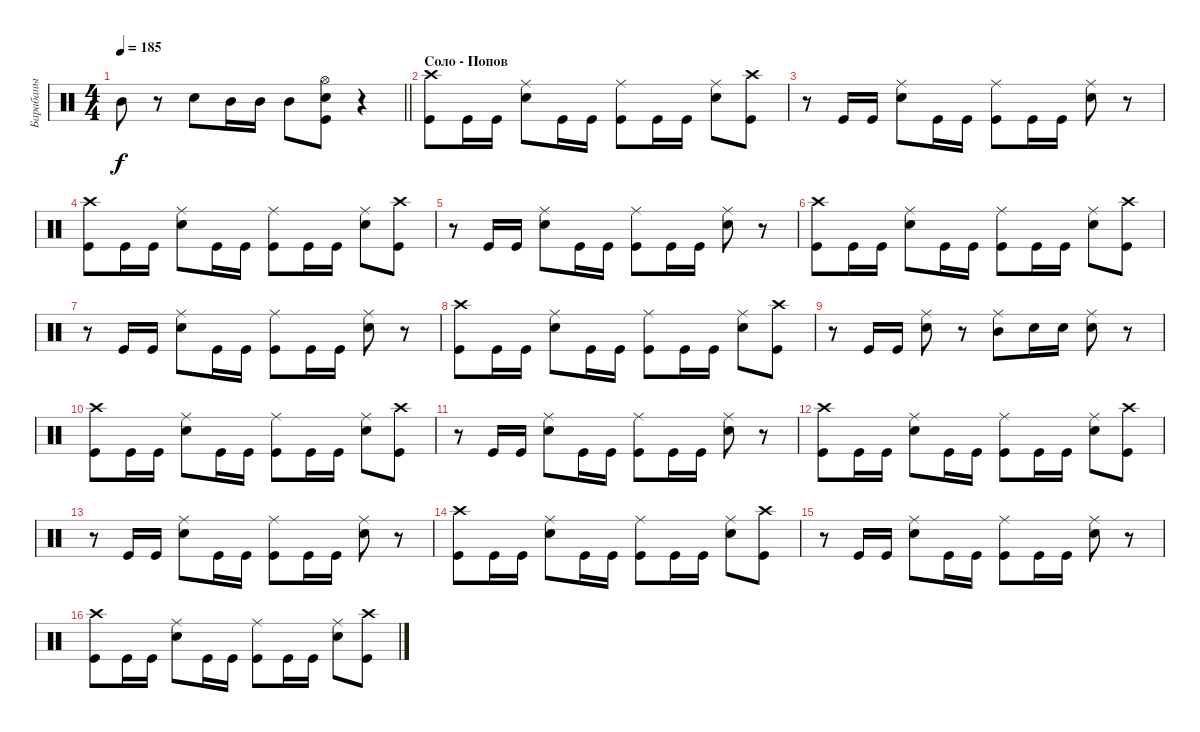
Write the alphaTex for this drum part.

\track ("Барабаны" "Барабаны") {instrument percussion}
\staff {score}
\articulation defaults
\ts (4 4)
\tempo 185
\clef neutral
\barLineRight lightlight
\ks c "Mid Tom (hit)".8{dy f}
r.8 "Snare (hit) 2".8 "Mid Tom (hit)".16 "Mid Tom (hit)".16 "Mid Tom (hit)".8 ("Kick (hit)" "Snare (hit) 2" "Hi-Hat (open)").8 r.4 |
\section ("" "Соло - Попов")
("Kick (hit)" "Crash high (hit)").8 "Kick (hit)".16 "Kick (hit)".16 ("Snare (hit) 2" "Ride (middle)").8 "Kick (hit)".16 "Kick (hit)".16 ("Kick (hit)" "Ride (middle)").8 "Kick (hit)".16 "Kick (hit)".16 ("Snare (hit) 2" "Ride (middle)").8 ("Kick (hit)" "Crash high (hit)").8 |
r.8 "Kick (hit)".16 "Kick (hit)".16 ("Snare (hit) 2" "Ride (middle)").8 "Kick (hit)".16 "Kick (hit)".16 ("Kick (hit)" "Ride (middle)").8 "Kick (hit)".16 "Kick (hit)".16 ("Snare (hit) 2" "Ride (middle)").8 r.8 |
("Kick (hit)" "Crash high (hit)").8 "Kick (hit)".16 "Kick (hit)".16 ("Snare (hit) 2" "Ride (middle)").8 "Kick (hit)".16 "Kick (hit)".16 ("Kick (hit)" "Ride (middle)").8 "Kick (hit)".16 "Kick (hit)".16 ("Snare (hit) 2" "Ride (middle)").8 ("Kick (hit)" "Crash high (hit)").8 |
r.8 "Kick (hit)".16 "Kick (hit)".16 ("Snare (hit) 2" "Ride (middle)").8 "Kick (hit)".16 "Kick (hit)".16 ("Kick (hit)" "Ride (middle)").8 "Kick (hit)".16 "Kick (hit)".16 ("Snare (hit) 2" "Ride (middle)").8 r.8 |
("Kick (hit)" "Crash high (hit)").8 "Kick (hit)".16 "Kick (hit)".16 ("Snare (hit) 2" "Ride (middle)").8 "Kick (hit)".16 "Kick (hit)".16 ("Kick (hit)" "Ride (middle)").8 "Kick (hit)".16 "Kick (hit)".16 ("Snare (hit) 2" "Ride (middle)").8 ("Kick (hit)" "Crash high (hit)").8 |
r.8 "Kick (hit)".16 "Kick (hit)".16 ("Snare (hit) 2" "Ride (middle)").8 "Kick (hit)".16 "Kick (hit)".16 ("Kick (hit)" "Ride (middle)").8 "Kick (hit)".16 "Kick (hit)".16 ("Snare (hit) 2" "Ride (middle)").8 r.8 |
("Kick (hit)" "Crash high (hit)").8 "Kick (hit)".16 "Kick (hit)".16 ("Snare (hit) 2" "Ride (middle)").8 "Kick (hit)".16 "Kick (hit)".16 ("Kick (hit)" "Ride (middle)").8 "Kick (hit)".16 "Kick (hit)".16 ("Snare (hit) 2" "Ride (middle)").8 ("Kick (hit)" "Crash high (hit)").8 |
r.8 "Kick (hit)".16 "Kick (hit)".16 ("Snare (hit) 2" "Ride (middle)").8 r.8 ("Mid Tom (hit)" "Ride (middle)").8 "Snare (hit) 2".16 "Snare (hit) 2".16 ("Snare (hit) 2" "Ride (middle)").8 r.8 |
("Kick (hit)" "Crash high (hit)").8 "Kick (hit)".16 "Kick (hit)".16 ("Snare (hit) 2" "Ride (middle)").8 "Kick (hit)".16 "Kick (hit)".16 ("Kick (hit)" "Ride (middle)").8 "Kick (hit)".16 "Kick (hit)".16 ("Snare (hit) 2" "Ride (middle)").8 ("Kick (hit)" "Crash high (hit)").8 |
r.8 "Kick (hit)".16 "Kick (hit)".16 ("Snare (hit) 2" "Ride (middle)").8 "Kick (hit)".16 "Kick (hit)".16 ("Kick (hit)" "Ride (middle)").8 "Kick (hit)".16 "Kick (hit)".16 ("Snare (hit) 2" "Ride (middle)").8 r.8 |
("Kick (hit)" "Crash high (hit)").8 "Kick (hit)".16 "Kick (hit)".16 ("Snare (hit) 2" "Ride (middle)").8 "Kick (hit)".16 "Kick (hit)".16 ("Kick (hit)" "Ride (middle)").8 "Kick (hit)".16 "Kick (hit)".16 ("Snare (hit) 2" "Ride (middle)").8 ("Kick (hit)" "Crash high (hit)").8 |
r.8 "Kick (hit)".16 "Kick (hit)".16 ("Snare (hit) 2" "Ride (middle)").8 "Kick (hit)".16 "Kick (hit)".16 ("Kick (hit)" "Ride (middle)").8 "Kick (hit)".16 "Kick (hit)".16 ("Snare (hit) 2" "Ride (middle)").8 r.8 |
("Kick (hit)" "Crash high (hit)").8 "Kick (hit)".16 "Kick (hit)".16 ("Snare (hit) 2" "Ride (middle)").8 "Kick (hit)".16 "Kick (hit)".16 ("Kick (hit)" "Ride (middle)").8 "Kick (hit)".16 "Kick (hit)".16 ("Snare (hit) 2" "Ride (middle)").8 ("Kick (hit)" "Crash high (hit)").8 |
r.8 "Kick (hit)".16 "Kick (hit)".16 ("Snare (hit) 2" "Ride (middle)").8 "Kick (hit)".16 "Kick (hit)".16 ("Kick (hit)" "Ride (middle)").8 "Kick (hit)".16 "Kick (hit)".16 ("Snare (hit) 2" "Ride (middle)").8 r.8 |
("Kick (hit)" "Crash high (hit)").8 "Kick (hit)".16 "Kick (hit)".16 ("Snare (hit) 2" "Ride (middle)").8 "Kick (hit)".16 "Kick (hit)".16 ("Kick (hit)" "Ride (middle)").8 "Kick (hit)".16 "Kick (hit)".16 ("Snare (hit) 2" "Ride (middle)").8 ("Kick (hit)" "Crash high (hit)").8
